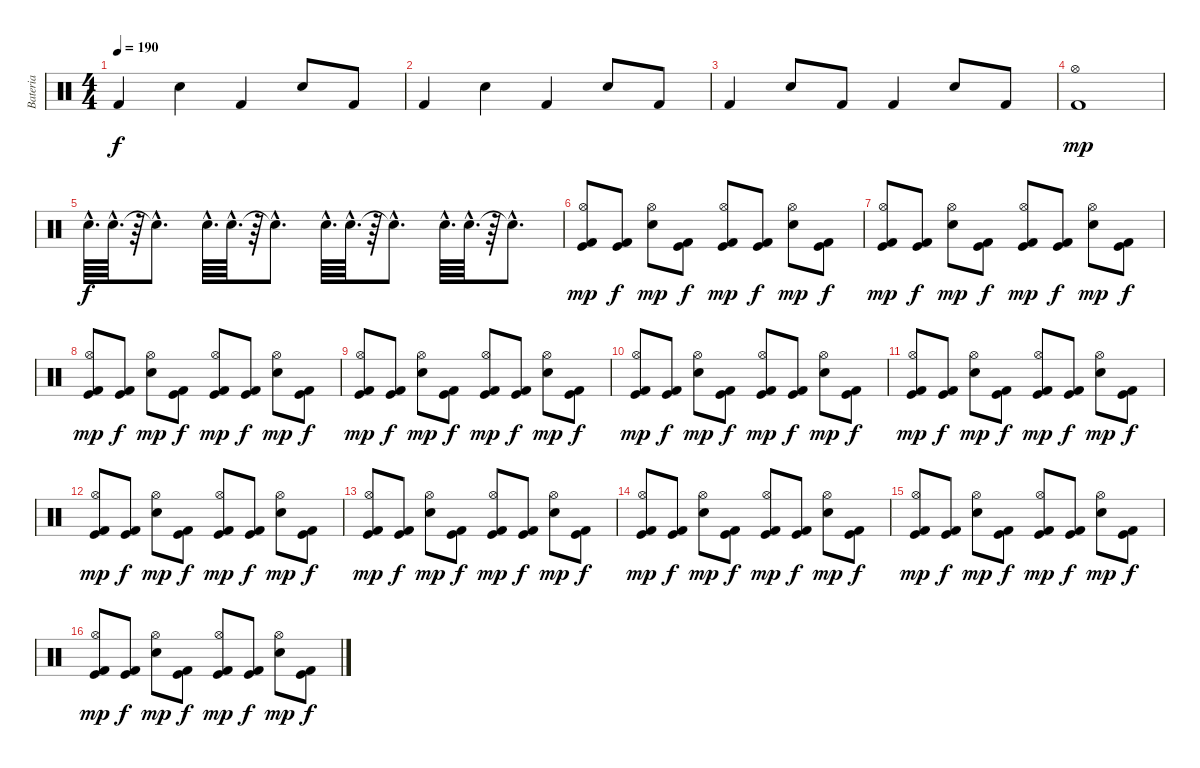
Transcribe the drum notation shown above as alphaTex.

\track ("Bateria" "Bateria") {instrument percussion}
\staff {score}
\articulation defaults
\ts (4 4)
\tempo 190
\clef neutral
\ks c "Kick (hit) 2".4{dy f} "Snare (hit) 2".4 "Kick (hit) 2".4 "Snare (hit) 2".8 "Kick (hit) 2".8
|
"Kick (hit) 2".4 "Snare (hit) 2".4 "Kick (hit) 2".4 "Snare (hit) 2".8 "Kick (hit) 2".8 |
"Kick (hit) 2".4 "Snare (hit) 2".8 "Kick (hit) 2".8 "Kick (hit) 2".4 "Snare (hit) 2".8 "Kick (hit) 2".8 |
("Kick (hit) 2" "Hi-Hat (open)").1{dy mp} |
"Electric Snare (hit)"{hac}.64{d dy f} "Electric Snare (hit)"{hac}.64{d} r.64 "Snare (hit)"{hac t}.8{d} "Electric Snare (hit)"{hac}.64{d} "Electric Snare (hit)"{hac}.64{d} r.64 "Electric Snare (hit)"{hac t}.8{d} "Electric Snare (hit)"{hac}.64{d} "Electric Snare (hit)"{hac}.64{d} r.64 "Electric Snare (hit)"{hac t}.8{d} "Electric Snare (hit)"{hac}.64{d} "Electric Snare (hit)"{hac}.64{d} r.64 "Electric Snare (hit)"{hac t}.8{d} |
("Kick (hit) 2" "Kick (hit)" "Hi-Hat (open)").8{dy mp} ("Kick (hit)" "Kick (hit) 2").8{dy f} ("Electric Snare (hit)" "Hi-Hat (open)").8{dy mp} ("Kick (hit) 2" "Kick (hit)").8{dy f} ("Kick (hit) 2" "Kick (hit)" "Hi-Hat (open)").8{dy mp} ("Kick (hit)" "Kick (hit) 2").8{dy f} ("Electric Snare (hit)" "Hi-Hat (open)").8{dy mp} ("Kick (hit)" "Kick (hit) 2").8{dy f} |
("Kick (hit) 2" "Kick (hit)" "Hi-Hat (open)").8{dy mp} ("Kick (hit)" "Kick (hit) 2").8{dy f} ("Electric Snare (hit)" "Hi-Hat (open)").8{dy mp} ("Kick (hit) 2" "Kick (hit)").8{dy f} ("Kick (hit) 2" "Kick (hit)" "Hi-Hat (open)").8{dy mp} ("Kick (hit)" "Kick (hit) 2").8{dy f} ("Electric Snare (hit)" "Hi-Hat (open)").8{dy mp} ("Kick (hit)" "Kick (hit) 2").8{dy f} |
("Kick (hit) 2" "Kick (hit)" "Hi-Hat (open)").8{dy mp} ("Kick (hit)" "Kick (hit) 2").8{dy f} ("Electric Snare (hit)" "Hi-Hat (open)").8{dy mp} ("Kick (hit) 2" "Kick (hit)").8{dy f} ("Kick (hit) 2" "Kick (hit)" "Hi-Hat (open)").8{dy mp} ("Kick (hit)" "Kick (hit) 2").8{dy f} ("Electric Snare (hit)" "Hi-Hat (open)").8{dy mp} ("Kick (hit)" "Kick (hit) 2").8{dy f} |
("Kick (hit) 2" "Kick (hit)" "Hi-Hat (open)").8{dy mp} ("Kick (hit)" "Kick (hit) 2").8{dy f} ("Electric Snare (hit)" "Hi-Hat (open)").8{dy mp} ("Kick (hit) 2" "Kick (hit)").8{dy f} ("Kick (hit) 2" "Kick (hit)" "Hi-Hat (open)").8{dy mp} ("Kick (hit)" "Kick (hit) 2").8{dy f} ("Electric Snare (hit)" "Hi-Hat (open)").8{dy mp} ("Kick (hit)" "Kick (hit) 2").8{dy f} |
("Kick (hit) 2" "Kick (hit)" "Hi-Hat (open)").8{dy mp} ("Kick (hit)" "Kick (hit) 2").8{dy f} ("Electric Snare (hit)" "Hi-Hat (open)").8{dy mp} ("Kick (hit) 2" "Kick (hit)").8{dy f} ("Kick (hit) 2" "Kick (hit)" "Hi-Hat (open)").8{dy mp} ("Kick (hit)" "Kick (hit) 2").8{dy f} ("Electric Snare (hit)" "Hi-Hat (open)").8{dy mp} ("Kick (hit)" "Kick (hit) 2").8{dy f} |
("Kick (hit) 2" "Kick (hit)" "Hi-Hat (open)").8{dy mp} ("Kick (hit)" "Kick (hit) 2").8{dy f} ("Electric Snare (hit)" "Hi-Hat (open)").8{dy mp} ("Kick (hit) 2" "Kick (hit)").8{dy f} ("Kick (hit) 2" "Kick (hit)" "Hi-Hat (open)").8{dy mp} ("Kick (hit)" "Kick (hit) 2").8{dy f} ("Electric Snare (hit)" "Hi-Hat (open)").8{dy mp} ("Kick (hit)" "Kick (hit) 2").8{dy f} |
("Kick (hit) 2" "Kick (hit)" "Hi-Hat (open)").8{dy mp} ("Kick (hit)" "Kick (hit) 2").8{dy f} ("Electric Snare (hit)" "Hi-Hat (open)").8{dy mp} ("Kick (hit) 2" "Kick (hit)").8{dy f} ("Kick (hit) 2" "Kick (hit)" "Hi-Hat (open)").8{dy mp} ("Kick (hit)" "Kick (hit) 2").8{dy f} ("Electric Snare (hit)" "Hi-Hat (open)").8{dy mp} ("Kick (hit)" "Kick (hit) 2").8{dy f} |
("Kick (hit) 2" "Kick (hit)" "Hi-Hat (open)").8{dy mp} ("Kick (hit)" "Kick (hit) 2").8{dy f} ("Electric Snare (hit)" "Hi-Hat (open)").8{dy mp} ("Kick (hit) 2" "Kick (hit)").8{dy f} ("Kick (hit) 2" "Kick (hit)" "Hi-Hat (open)").8{dy mp} ("Kick (hit)" "Kick (hit) 2").8{dy f} ("Electric Snare (hit)" "Hi-Hat (open)").8{dy mp} ("Kick (hit)" "Kick (hit) 2").8{dy f} |
("Kick (hit) 2" "Kick (hit)" "Hi-Hat (open)").8{dy mp} ("Kick (hit)" "Kick (hit) 2").8{dy f} ("Electric Snare (hit)" "Hi-Hat (open)").8{dy mp} ("Kick (hit) 2" "Kick (hit)").8{dy f} ("Kick (hit) 2" "Kick (hit)" "Hi-Hat (open)").8{dy mp} ("Kick (hit)" "Kick (hit) 2").8{dy f} ("Electric Snare (hit)" "Hi-Hat (open)").8{dy mp} ("Kick (hit)" "Kick (hit) 2").8{dy f} |
("Kick (hit) 2" "Kick (hit)" "Hi-Hat (open)").8{dy mp} ("Kick (hit)" "Kick (hit) 2").8{dy f} ("Electric Snare (hit)" "Hi-Hat (open)").8{dy mp} ("Kick (hit) 2" "Kick (hit)").8{dy f} ("Kick (hit) 2" "Kick (hit)" "Hi-Hat (open)").8{dy mp} ("Kick (hit)" "Kick (hit) 2").8{dy f} ("Electric Snare (hit)" "Hi-Hat (open)").8{dy mp} ("Kick (hit)" "Kick (hit) 2").8{dy f} |
("Kick (hit) 2" "Kick (hit)" "Hi-Hat (open)").8{dy mp} ("Kick (hit)" "Kick (hit) 2").8{dy f} ("Electric Snare (hit)" "Hi-Hat (open)").8{dy mp} ("Kick (hit) 2" "Kick (hit)").8{dy f} ("Kick (hit) 2" "Kick (hit)" "Hi-Hat (open)").8{dy mp} ("Kick (hit)" "Kick (hit) 2").8{dy f} ("Electric Snare (hit)" "Hi-Hat (open)").8{dy mp} ("Kick (hit)" "Kick (hit) 2").8{dy f}
